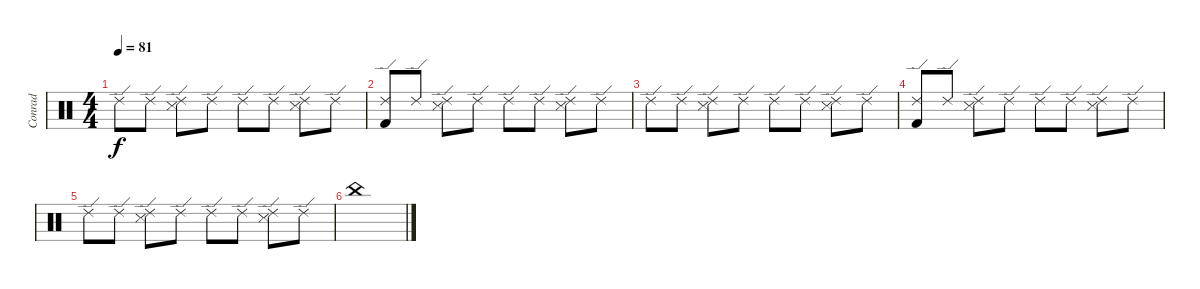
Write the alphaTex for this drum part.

\track ("Conrad" "Conrad") {instrument percussion}
\staff {score}
\articulation defaults
\ts (4 4)
\tempo 81
\clef neutral
\ks c "Ride (edge) 2".8{dy f} "Ride (edge) 2".8
("Ride (edge) 2" "Snare (side stick) 3").8 "Ride (edge) 2".8 "Ride (edge) 2".8 "Ride (edge) 2".8 ("Ride (edge) 2" "Snare (side stick) 3").8 "Ride (edge) 2".8 |
("Ride (edge) 2" "Kick (hit) 2").8 "Ride (edge) 2".8 ("Ride (edge) 2" "Snare (side stick) 3").8 "Ride (edge) 2".8 "Ride (edge) 2".8 "Ride (edge) 2".8 ("Ride (edge) 2" "Snare (side stick) 3").8 "Ride (edge) 2".8 |
"Ride (edge) 2".8 "Ride (edge) 2".8 ("Ride (edge) 2" "Snare (side stick) 3").8 "Ride (edge) 2".8 "Ride (edge) 2".8 "Ride (edge) 2".8 ("Ride (edge) 2" "Snare (side stick) 3").8 "Ride (edge) 2".8 |
("Ride (edge) 2" "Kick (hit) 2").8 "Ride (edge) 2".8 ("Ride (edge) 2" "Snare (side stick) 3").8 "Ride (edge) 2".8 "Ride (edge) 2".8 "Ride (edge) 2".8 ("Ride (edge) 2" "Snare (side stick) 3").8 "Ride (edge) 2".8 |
"Ride (edge) 2".8 "Ride (edge) 2".8 ("Ride (edge) 2" "Snare (side stick) 3").8 "Ride (edge) 2".8 "Ride (edge) 2".8 "Ride (edge) 2".8 ("Ride (edge) 2" "Snare (side stick) 3").8 "Ride (edge) 2".8 |
"China (hit)".1
